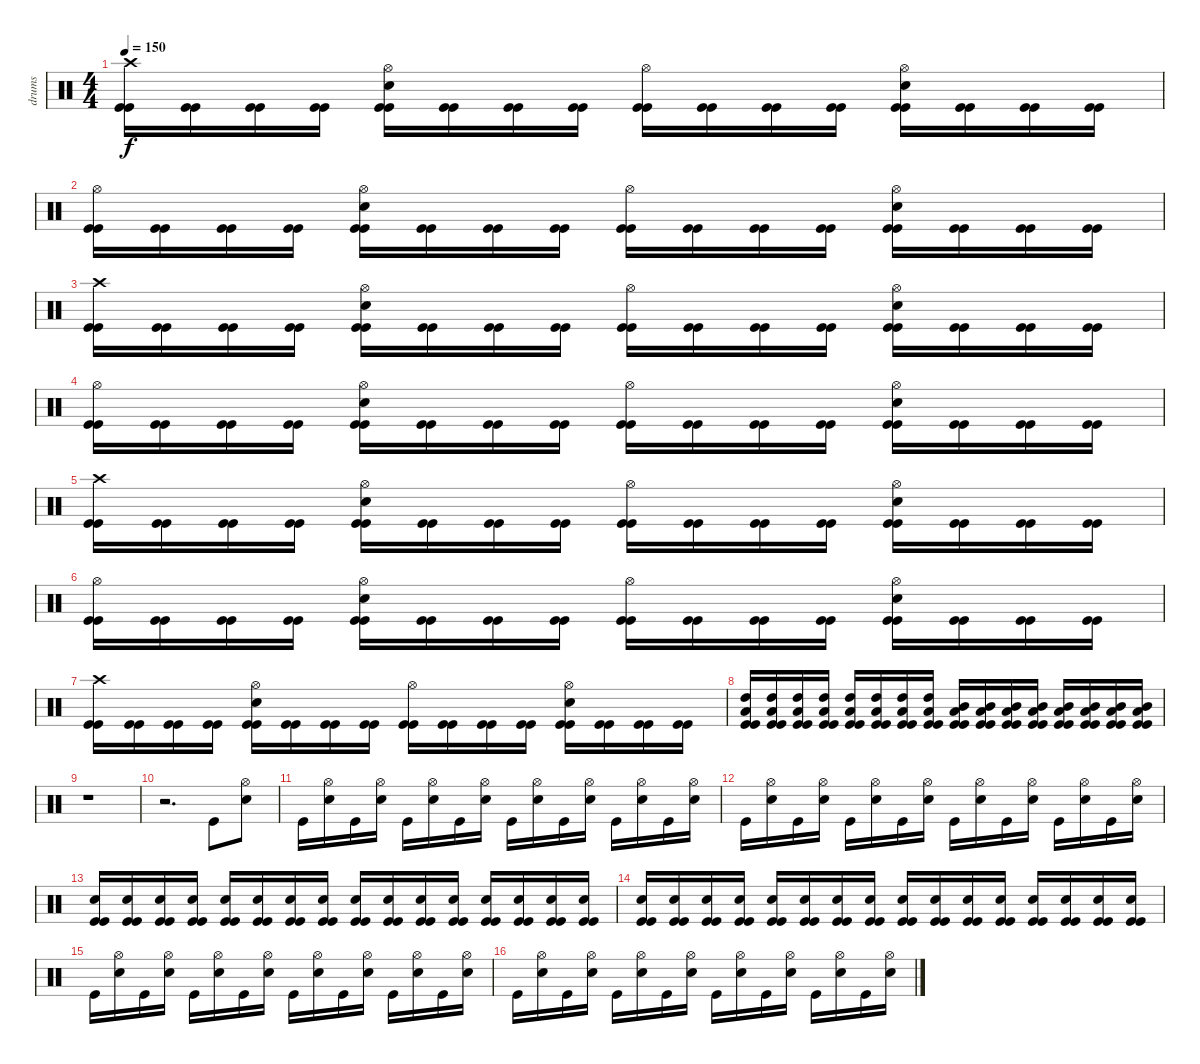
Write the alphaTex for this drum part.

\track ("drums" "drums") {instrument percussion}
\staff {score}
\articulation defaults
\ts (4 4)
\tempo 150
\clef neutral
\ks c
("Crash high (hit)" "Kick (hit)" "Kick (hit)").16{dy f} ("Kick (hit)" "Kick (hit)").16 ("Kick (hit)" "Kick (hit)").16 ("Kick (hit)" "Kick (hit)").16 ("Electric Snare (hit)" "Hi-Hat (open)" "Kick (hit)" "Kick (hit)").16 ("Kick (hit)" "Kick (hit)").16 ("Kick (hit)" "Kick (hit)").16 ("Kick (hit)" "Kick (hit)").16 ("Hi-Hat (open)" "Kick (hit)" "Kick (hit)").16 ("Kick (hit)" "Kick (hit)").16 ("Kick (hit)" "Kick (hit)").16 ("Kick (hit)" "Kick (hit)").16 ("Electric Snare (hit)" "Hi-Hat (open)" "Kick (hit)" "Kick (hit)").16 ("Kick (hit)" "Kick (hit)").16 ("Kick (hit)" "Kick (hit)").16 ("Kick (hit)" "Kick (hit)").16 |
("Hi-Hat (open)" "Kick (hit)" "Kick (hit)").16 ("Kick (hit)" "Kick (hit)").16 ("Kick (hit)" "Kick (hit)").16 ("Kick (hit)" "Kick (hit)").16 ("Electric Snare (hit)" "Hi-Hat (open)" "Kick (hit)" "Kick (hit)").16 ("Kick (hit)" "Kick (hit)").16 ("Kick (hit)" "Kick (hit)").16 ("Kick (hit)" "Kick (hit)").16 ("Hi-Hat (open)" "Kick (hit)" "Kick (hit)").16 ("Kick (hit)" "Kick (hit)").16 ("Kick (hit)" "Kick (hit)").16 ("Kick (hit)" "Kick (hit)").16 ("Electric Snare (hit)" "Hi-Hat (open)" "Kick (hit)" "Kick (hit)").16 ("Kick (hit)" "Kick (hit)").16 ("Kick (hit)" "Kick (hit)").16 ("Kick (hit)" "Kick (hit)").16 |
("Crash high (hit)" "Kick (hit)" "Kick (hit)").16 ("Kick (hit)" "Kick (hit)").16 ("Kick (hit)" "Kick (hit)").16 ("Kick (hit)" "Kick (hit)").16 ("Electric Snare (hit)" "Hi-Hat (open)" "Kick (hit)" "Kick (hit)").16 ("Kick (hit)" "Kick (hit)").16 ("Kick (hit)" "Kick (hit)").16 ("Kick (hit)" "Kick (hit)").16 ("Hi-Hat (open)" "Kick (hit)" "Kick (hit)").16 ("Kick (hit)" "Kick (hit)").16 ("Kick (hit)" "Kick (hit)").16 ("Kick (hit)" "Kick (hit)").16 ("Electric Snare (hit)" "Hi-Hat (open)" "Kick (hit)" "Kick (hit)").16 ("Kick (hit)" "Kick (hit)").16 ("Kick (hit)" "Kick (hit)").16 ("Kick (hit)" "Kick (hit)").16 |
("Hi-Hat (open)" "Kick (hit)" "Kick (hit)").16 ("Kick (hit)" "Kick (hit)").16 ("Kick (hit)" "Kick (hit)").16 ("Kick (hit)" "Kick (hit)").16 ("Electric Snare (hit)" "Hi-Hat (open)" "Kick (hit)" "Kick (hit)").16 ("Kick (hit)" "Kick (hit)").16 ("Kick (hit)" "Kick (hit)").16 ("Kick (hit)" "Kick (hit)").16 ("Hi-Hat (open)" "Kick (hit)" "Kick (hit)").16 ("Kick (hit)" "Kick (hit)").16 ("Kick (hit)" "Kick (hit)").16 ("Kick (hit)" "Kick (hit)").16 ("Electric Snare (hit)" "Hi-Hat (open)" "Kick (hit)" "Kick (hit)").16 ("Kick (hit)" "Kick (hit)").16 ("Kick (hit)" "Kick (hit)").16 ("Kick (hit)" "Kick (hit)").16 |
("Crash high (hit)" "Kick (hit)" "Kick (hit)").16 ("Kick (hit)" "Kick (hit)").16 ("Kick (hit)" "Kick (hit)").16 ("Kick (hit)" "Kick (hit)").16 ("Electric Snare (hit)" "Hi-Hat (open)" "Kick (hit)" "Kick (hit)").16 ("Kick (hit)" "Kick (hit)").16 ("Kick (hit)" "Kick (hit)").16 ("Kick (hit)" "Kick (hit)").16 ("Hi-Hat (open)" "Kick (hit)" "Kick (hit)").16 ("Kick (hit)" "Kick (hit)").16 ("Kick (hit)" "Kick (hit)").16 ("Kick (hit)" "Kick (hit)").16 ("Electric Snare (hit)" "Hi-Hat (open)" "Kick (hit)" "Kick (hit)").16 ("Kick (hit)" "Kick (hit)").16 ("Kick (hit)" "Kick (hit)").16 ("Kick (hit)" "Kick (hit)").16 |
("Hi-Hat (open)" "Kick (hit)" "Kick (hit)").16 ("Kick (hit)" "Kick (hit)").16 ("Kick (hit)" "Kick (hit)").16 ("Kick (hit)" "Kick (hit)").16 ("Electric Snare (hit)" "Hi-Hat (open)" "Kick (hit)" "Kick (hit)").16 ("Kick (hit)" "Kick (hit)").16 ("Kick (hit)" "Kick (hit)").16 ("Kick (hit)" "Kick (hit)").16 ("Hi-Hat (open)" "Kick (hit)" "Kick (hit)").16 ("Kick (hit)" "Kick (hit)").16 ("Kick (hit)" "Kick (hit)").16 ("Kick (hit)" "Kick (hit)").16 ("Electric Snare (hit)" "Hi-Hat (open)" "Kick (hit)" "Kick (hit)").16 ("Kick (hit)" "Kick (hit)").16 ("Kick (hit)" "Kick (hit)").16 ("Kick (hit)" "Kick (hit)").16 |
("Crash high (hit)" "Kick (hit)" "Kick (hit)").16 ("Kick (hit)" "Kick (hit)").16 ("Kick (hit)" "Kick (hit)").16 ("Kick (hit)" "Kick (hit)").16 ("Electric Snare (hit)" "Hi-Hat (open)" "Kick (hit)" "Kick (hit)").16 ("Kick (hit)" "Kick (hit)").16 ("Kick (hit)" "Kick (hit)").16 ("Kick (hit)" "Kick (hit)").16 ("Hi-Hat (open)" "Kick (hit)" "Kick (hit)").16 ("Kick (hit)" "Kick (hit)").16 ("Kick (hit)" "Kick (hit)").16 ("Kick (hit)" "Kick (hit)").16 ("Electric Snare (hit)" "Hi-Hat (open)" "Kick (hit)" "Kick (hit)").16 ("Kick (hit)" "Kick (hit)").16 ("Kick (hit)" "Kick (hit)").16 ("Kick (hit)" "Kick (hit)").16 |
("High Tom (hit)" "Low Tom (hit)" "Kick (hit)" "Kick (hit)").16 ("High Tom (hit)" "Low Tom (hit)" "Kick (hit)" "Kick (hit)").16 ("High Tom (hit)" "Low Tom (hit)" "Kick (hit)" "Kick (hit)").16 ("High Tom (hit)" "Low Tom (hit)" "Kick (hit)" "Kick (hit)").16 ("High Tom (hit)" "Low Tom (hit)" "Kick (hit)" "Kick (hit)").16 ("High Tom (hit)" "Low Tom (hit)" "Kick (hit)" "Kick (hit)").16 ("High Tom (hit)" "Low Tom (hit)" "Kick (hit)" "Kick (hit)").16 ("High Tom (hit)" "Low Tom (hit)" "Kick (hit)" "Kick (hit)").16 ("Mid Tom (hit)" "Low Tom (hit)" "Kick (hit)" "Kick (hit)").16 ("Mid Tom (hit)" "Low Tom (hit)" "Kick (hit)" "Kick (hit)").16 ("Mid Tom (hit)" "Low Tom (hit)" "Kick (hit)" "Kick (hit)").16 ("Mid Tom (hit)" "Low Tom (hit)" "Kick (hit)" "Kick (hit)").16 ("Mid Tom (hit)" "Low Tom (hit)" "Kick (hit)" "Kick (hit)").16 ("Mid Tom (hit)" "Low Tom (hit)" "Kick (hit)" "Kick (hit)").16 ("Mid Tom (hit)" "Low Tom (hit)" "Kick (hit)" "Kick (hit)").16 ("Mid Tom (hit)" "Low Tom (hit)" "Kick (hit)" "Kick (hit)").16 |
r.1 |
r.2{d} "Kick (hit)".8 ("Hi-Hat (open)" "Electric Snare (hit)").8 |
"Kick (hit)".16 ("Hi-Hat (open)" "Electric Snare (hit)").16 "Kick (hit)".16 ("Hi-Hat (open)" "Electric Snare (hit)").16 "Kick (hit)".16 ("Hi-Hat (open)" "Electric Snare (hit)").16 "Kick (hit)".16 ("Hi-Hat (open)" "Electric Snare (hit)").16 "Kick (hit)".16 ("Hi-Hat (open)" "Electric Snare (hit)").16 "Kick (hit)".16 ("Hi-Hat (open)" "Electric Snare (hit)").16 "Kick (hit)".16 ("Hi-Hat (open)" "Electric Snare (hit)").16 "Kick (hit)".16 ("Hi-Hat (open)" "Electric Snare (hit)").16 |
"Kick (hit)".16 ("Hi-Hat (open)" "Electric Snare (hit)").16 "Kick (hit)".16 ("Hi-Hat (open)" "Electric Snare (hit)").16 "Kick (hit)".16 ("Hi-Hat (open)" "Electric Snare (hit)").16 "Kick (hit)".16 ("Hi-Hat (open)" "Electric Snare (hit)").16 "Kick (hit)".16 ("Hi-Hat (open)" "Electric Snare (hit)").16 "Kick (hit)".16 ("Hi-Hat (open)" "Electric Snare (hit)").16 "Kick (hit)".16 ("Hi-Hat (open)" "Electric Snare (hit)").16 "Kick (hit)".16 ("Hi-Hat (open)" "Electric Snare (hit)").16 |
("Electric Snare (hit)" "Kick (hit)" "Kick (hit)").16 ("Electric Snare (hit)" "Kick (hit)" "Kick (hit)").16 ("Electric Snare (hit)" "Kick (hit)" "Kick (hit)").16 ("Electric Snare (hit)" "Kick (hit)" "Kick (hit)").16 ("Electric Snare (hit)" "Kick (hit)" "Kick (hit)").16 ("Electric Snare (hit)" "Kick (hit)" "Kick (hit)").16 ("Electric Snare (hit)" "Kick (hit)" "Kick (hit)").16 ("Electric Snare (hit)" "Kick (hit)" "Kick (hit)").16 ("Electric Snare (hit)" "Kick (hit)" "Kick (hit)").16 ("Electric Snare (hit)" "Kick (hit)" "Kick (hit)").16 ("Electric Snare (hit)" "Kick (hit)" "Kick (hit)").16 ("Electric Snare (hit)" "Kick (hit)" "Kick (hit)").16 ("Electric Snare (hit)" "Kick (hit)" "Kick (hit)").16 ("Electric Snare (hit)" "Kick (hit)" "Kick (hit)").16 ("Electric Snare (hit)" "Kick (hit)" "Kick (hit)").16 ("Electric Snare (hit)" "Kick (hit)" "Kick (hit)").16 |
("Electric Snare (hit)" "Kick (hit)" "Kick (hit)").16 ("Electric Snare (hit)" "Kick (hit)" "Kick (hit)").16 ("Electric Snare (hit)" "Kick (hit)" "Kick (hit)").16 ("Electric Snare (hit)" "Kick (hit)" "Kick (hit)").16 ("Electric Snare (hit)" "Kick (hit)" "Kick (hit)").16 ("Electric Snare (hit)" "Kick (hit)" "Kick (hit)").16 ("Electric Snare (hit)" "Kick (hit)" "Kick (hit)").16 ("Electric Snare (hit)" "Kick (hit)" "Kick (hit)").16 ("Electric Snare (hit)" "Kick (hit)" "Kick (hit)").16 ("Electric Snare (hit)" "Kick (hit)" "Kick (hit)").16 ("Electric Snare (hit)" "Kick (hit)" "Kick (hit)").16 ("Electric Snare (hit)" "Kick (hit)" "Kick (hit)").16 ("Electric Snare (hit)" "Kick (hit)" "Kick (hit)").16 ("Electric Snare (hit)" "Kick (hit)" "Kick (hit)").16 ("Electric Snare (hit)" "Kick (hit)" "Kick (hit)").16 ("Electric Snare (hit)" "Kick (hit)" "Kick (hit)").16 |
"Kick (hit)".16 ("Hi-Hat (open)" "Electric Snare (hit)").16 "Kick (hit)".16 ("Hi-Hat (open)" "Electric Snare (hit)").16 "Kick (hit)".16 ("Hi-Hat (open)" "Electric Snare (hit)").16 "Kick (hit)".16 ("Hi-Hat (open)" "Electric Snare (hit)").16 "Kick (hit)".16 ("Hi-Hat (open)" "Electric Snare (hit)").16 "Kick (hit)".16 ("Hi-Hat (open)" "Electric Snare (hit)").16 "Kick (hit)".16 ("Hi-Hat (open)" "Electric Snare (hit)").16 "Kick (hit)".16 ("Hi-Hat (open)" "Electric Snare (hit)").16 |
"Kick (hit)".16 ("Hi-Hat (open)" "Electric Snare (hit)").16 "Kick (hit)".16 ("Hi-Hat (open)" "Electric Snare (hit)").16 "Kick (hit)".16 ("Hi-Hat (open)" "Electric Snare (hit)").16 "Kick (hit)".16 ("Hi-Hat (open)" "Electric Snare (hit)").16 "Kick (hit)".16 ("Hi-Hat (open)" "Electric Snare (hit)").16 "Kick (hit)".16 ("Hi-Hat (open)" "Electric Snare (hit)").16 "Kick (hit)".16 ("Hi-Hat (open)" "Electric Snare (hit)").16 "Kick (hit)".16 ("Hi-Hat (open)" "Electric Snare (hit)").16
